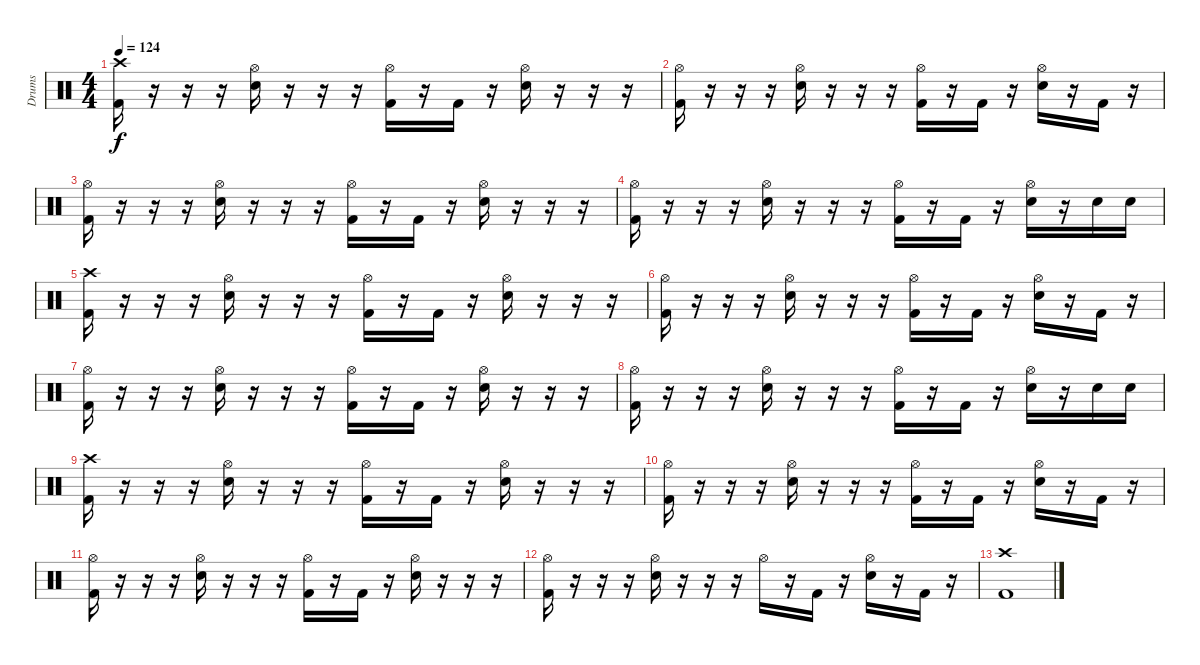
\track ("Drums" "Drums") {instrument percussion}
\staff {score}
\articulation defaults
\ts (4 4)
\tempo 124
\clef neutral
\ks c
("Crash high (hit)" "Kick (hit) 2").16{dy f} r.16 r.16 r.16 ("Hi-Hat (open)" "Snare (hit) 2").16 r.16 r.16 r.16 ("Hi-Hat (open)" "Kick (hit) 2").16 r.16 "Kick (hit) 2".16 r.16 ("Hi-Hat (open)" "Snare (hit) 2").16 r.16 r.16 r.16 |
("Hi-Hat (open)" "Kick (hit) 2").16 r.16 r.16 r.16 ("Hi-Hat (open)" "Snare (hit) 2").16 r.16 r.16 r.16 ("Hi-Hat (open)" "Kick (hit) 2").16 r.16 "Kick (hit) 2".16 r.16 ("Hi-Hat (open)" "Snare (hit) 2").16 r.16 "Kick (hit) 2".16 r.16 |
("Hi-Hat (open)" "Kick (hit) 2").16 r.16 r.16 r.16 ("Hi-Hat (open)" "Snare (hit) 2").16 r.16 r.16 r.16 ("Hi-Hat (open)" "Kick (hit) 2").16 r.16 "Kick (hit) 2".16 r.16 ("Hi-Hat (open)" "Snare (hit) 2").16 r.16 r.16 r.16 |
("Hi-Hat (open)" "Kick (hit) 2").16 r.16 r.16 r.16 ("Hi-Hat (open)" "Snare (hit) 2").16 r.16 r.16 r.16 ("Hi-Hat (open)" "Kick (hit) 2").16 r.16 "Kick (hit) 2".16 r.16 ("Hi-Hat (open)" "Snare (hit) 2").16 r.16 "Snare (hit) 2".16 "Snare (hit) 2".16 |
("Crash high (hit)" "Kick (hit) 2").16 r.16 r.16 r.16 ("Hi-Hat (open)" "Snare (hit) 2").16 r.16 r.16 r.16 ("Hi-Hat (open)" "Kick (hit) 2").16 r.16 "Kick (hit) 2".16 r.16 ("Hi-Hat (open)" "Snare (hit) 2").16 r.16 r.16 r.16 |
("Hi-Hat (open)" "Kick (hit) 2").16 r.16 r.16 r.16 ("Hi-Hat (open)" "Snare (hit) 2").16 r.16 r.16 r.16 ("Hi-Hat (open)" "Kick (hit) 2").16 r.16 "Kick (hit) 2".16 r.16 ("Hi-Hat (open)" "Snare (hit) 2").16 r.16 "Kick (hit) 2".16 r.16 |
("Hi-Hat (open)" "Kick (hit) 2").16 r.16 r.16 r.16 ("Hi-Hat (open)" "Snare (hit) 2").16 r.16 r.16 r.16 ("Hi-Hat (open)" "Kick (hit) 2").16 r.16 "Kick (hit) 2".16 r.16 ("Hi-Hat (open)" "Snare (hit) 2").16 r.16 r.16 r.16 |
("Hi-Hat (open)" "Kick (hit) 2").16 r.16 r.16 r.16 ("Hi-Hat (open)" "Snare (hit) 2").16 r.16 r.16 r.16 ("Hi-Hat (open)" "Kick (hit) 2").16 r.16 "Kick (hit) 2".16 r.16 ("Hi-Hat (open)" "Snare (hit) 2").16 r.16 "Snare (hit) 2".16 "Snare (hit) 2".16 |
("Crash high (hit)" "Kick (hit) 2").16 r.16 r.16 r.16 ("Hi-Hat (open)" "Snare (hit) 2").16 r.16 r.16 r.16 ("Hi-Hat (open)" "Kick (hit) 2").16 r.16 "Kick (hit) 2".16 r.16 ("Hi-Hat (open)" "Snare (hit) 2").16 r.16 r.16 r.16 |
("Hi-Hat (open)" "Kick (hit) 2").16 r.16 r.16 r.16 ("Hi-Hat (open)" "Snare (hit) 2").16 r.16 r.16 r.16 ("Hi-Hat (open)" "Kick (hit) 2").16 r.16 "Kick (hit) 2".16 r.16 ("Hi-Hat (open)" "Snare (hit) 2").16 r.16 "Kick (hit) 2".16 r.16 |
("Hi-Hat (open)" "Kick (hit) 2").16 r.16 r.16 r.16 ("Hi-Hat (open)" "Snare (hit) 2").16 r.16 r.16 r.16 ("Hi-Hat (open)" "Kick (hit) 2").16 r.16 "Kick (hit) 2".16 r.16 ("Hi-Hat (open)" "Snare (hit) 2").16 r.16 r.16 r.16 |
("Hi-Hat (open)" "Kick (hit) 2").16 r.16 r.16 r.16 ("Hi-Hat (open)" "Snare (hit) 2").16 r.16 r.16 r.16 "Hi-Hat (open)".16 r.16 "Kick (hit) 2".16 r.16 ("Hi-Hat (open)" "Snare (hit) 2").16 r.16 "Kick (hit) 2".16 r.16 |
("Crash high (hit)" "Kick (hit) 2").1
